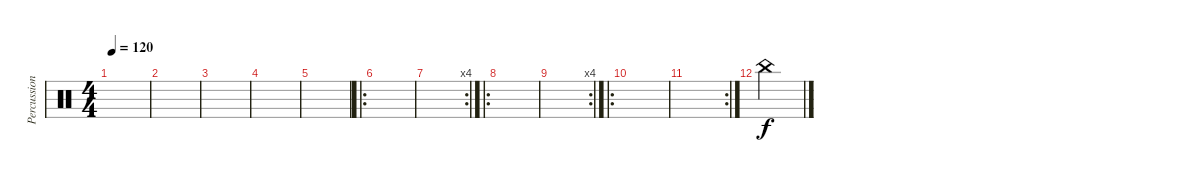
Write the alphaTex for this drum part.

\track ("Percussion" "Percussion") {instrument percussion}
\staff {score}
\articulation defaults
\ts (4 4)
\tempo 120
\clef neutral
\ks c
|
|
|
|
|
\ro
|
\rc 4
|
\ro
|
\rc 4
|
\ro
|
\rc 2
|
"China (hit)".4
